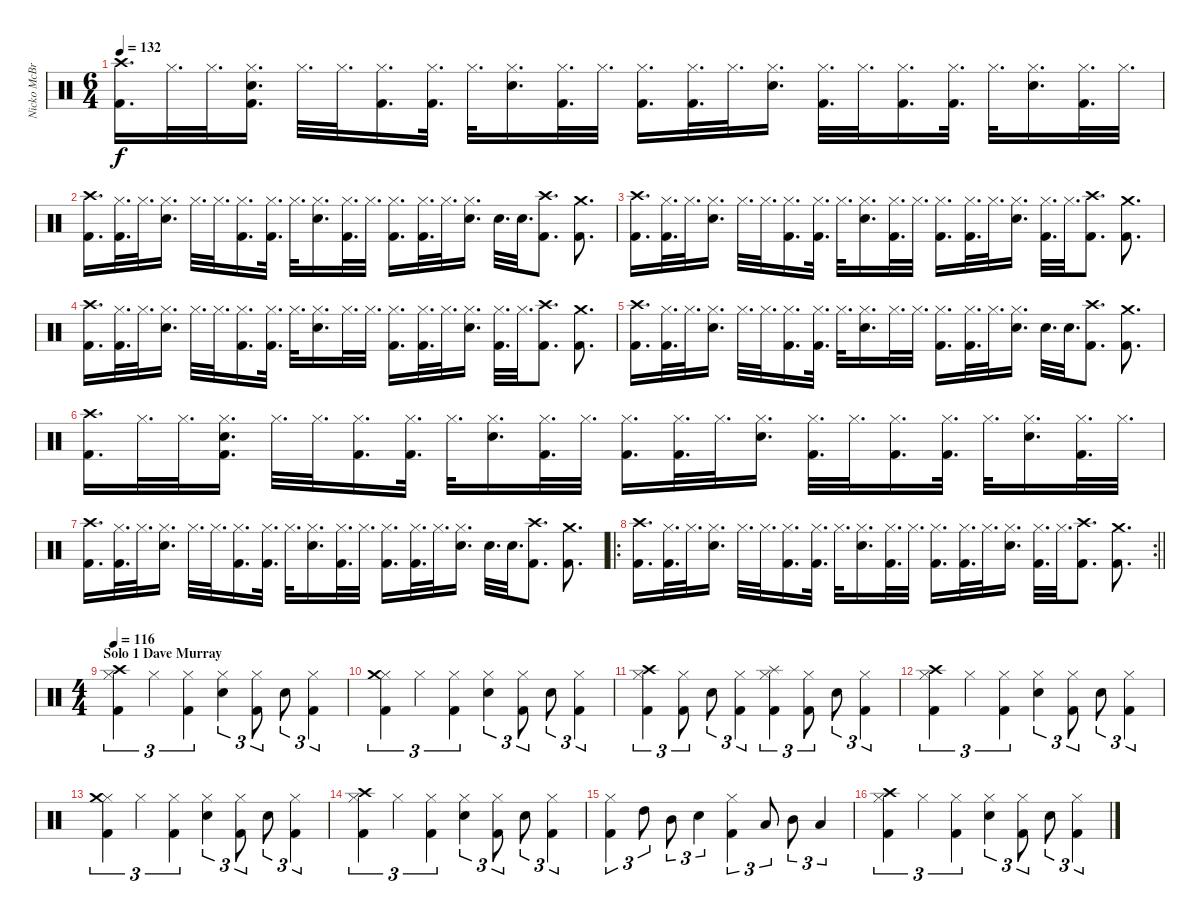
\track ("Nicko McBrain" "Nicko McBr") {instrument percussion}
\staff {score}
\articulation defaults
\ts (6 4)
\tempo 132
\clef neutral
\ks c
("Crash high (hit)" "Kick (hit) 2").16{d dy f} "Hi-Hat (closed)".32{d} "Hi-Hat (closed)".32{d} ("Hi-Hat (closed)" "Snare (hit) 2" "Kick (hit) 2").16{d} "Hi-Hat (closed)".32{d} "Hi-Hat (closed)".32{d} ("Hi-Hat (closed)" "Kick (hit) 2").16{d} ("Hi-Hat (closed)" "Kick (hit) 2").32{d} "Hi-Hat (closed)".32{d} ("Hi-Hat (closed)" "Snare (hit) 2").16{d} ("Hi-Hat (closed)" "Kick (hit) 2").32{d} "Hi-Hat (closed)".32{d} ("Hi-Hat (closed)" "Kick (hit) 2").16{d} ("Hi-Hat (closed)" "Kick (hit) 2").32{d} "Hi-Hat (closed)".32{d} ("Hi-Hat (closed)" "Snare (hit) 2").16{d} ("Hi-Hat (closed)" "Kick (hit) 2").32{d} "Hi-Hat (closed)".32{d} ("Hi-Hat (closed)" "Kick (hit) 2").16{d} ("Hi-Hat (closed)" "Kick (hit) 2").32{d} "Hi-Hat (closed)".32{d} ("Hi-Hat (closed)" "Snare (hit) 2").16{d} ("Hi-Hat (closed)" "Kick (hit) 2").32{d} "Hi-Hat (closed)".32{d} |
("Crash high (hit)" "Kick (hit) 2").16{d} ("Hi-Hat (closed)" "Kick (hit) 2").32{d} "Hi-Hat (closed)".32{d} ("Hi-Hat (closed)" "Snare (hit) 2").16{d} "Hi-Hat (closed)".32{d} "Hi-Hat (closed)".32{d} ("Hi-Hat (closed)" "Kick (hit) 2").16{d} ("Hi-Hat (closed)" "Kick (hit) 2").32{d} "Hi-Hat (closed)".32{d} ("Hi-Hat (closed)" "Snare (hit) 2").16{d} ("Hi-Hat (closed)" "Kick (hit) 2").32{d} "Hi-Hat (closed)".32{d} ("Hi-Hat (closed)" "Kick (hit) 2").16{d} ("Hi-Hat (closed)" "Kick (hit) 2").32{d} "Hi-Hat (closed)".32{d} ("Hi-Hat (closed)" "Snare (hit) 2").16{d} "Snare (hit) 2".32{d} "Snare (hit) 2".32{d} ("Crash high (hit)" "Kick (hit) 2").8{d} ("Crash medium (hit)" "Kick (hit) 2").8{d} |
("Crash high (hit)" "Kick (hit) 2").16{d} ("Hi-Hat (closed)" "Kick (hit) 2").32{d} "Hi-Hat (closed)".32{d} ("Hi-Hat (closed)" "Snare (hit) 2").16{d} "Hi-Hat (closed)".32{d} "Hi-Hat (closed)".32{d} ("Hi-Hat (closed)" "Kick (hit) 2").16{d} ("Hi-Hat (closed)" "Kick (hit) 2").32{d} "Hi-Hat (closed)".32{d} ("Hi-Hat (closed)" "Snare (hit) 2").16{d} ("Hi-Hat (closed)" "Kick (hit) 2").32{d} "Hi-Hat (closed)".32{d} ("Hi-Hat (closed)" "Kick (hit) 2").16{d} ("Hi-Hat (closed)" "Kick (hit) 2").32{d} "Hi-Hat (closed)".32{d} ("Hi-Hat (closed)" "Snare (hit) 2").16{d} ("Hi-Hat (closed)" "Kick (hit) 2").32{d} "Hi-Hat (closed)".32{d} ("Crash high (hit)" "Kick (hit) 2").8{d} ("Crash medium (hit)" "Kick (hit) 2").8{d} |
("Crash high (hit)" "Kick (hit) 2").16{d} ("Hi-Hat (closed)" "Kick (hit) 2").32{d} "Hi-Hat (closed)".32{d} ("Hi-Hat (closed)" "Snare (hit) 2").16{d} "Hi-Hat (closed)".32{d} "Hi-Hat (closed)".32{d} ("Hi-Hat (closed)" "Kick (hit) 2").16{d} ("Hi-Hat (closed)" "Kick (hit) 2").32{d} "Hi-Hat (closed)".32{d} ("Hi-Hat (closed)" "Snare (hit) 2").16{d} "Hi-Hat (closed)".32{d} "Hi-Hat (closed)".32{d} ("Hi-Hat (closed)" "Kick (hit) 2").16{d} ("Hi-Hat (closed)" "Kick (hit) 2").32{d} "Hi-Hat (closed)".32{d} ("Hi-Hat (closed)" "Snare (hit) 2").16{d} ("Hi-Hat (closed)" "Kick (hit) 2").32{d} "Hi-Hat (closed)".32{d} ("Crash high (hit)" "Kick (hit) 2").8{d} ("Crash medium (hit)" "Kick (hit) 2").8{d} |
("Crash high (hit)" "Kick (hit) 2").16{d} ("Hi-Hat (closed)" "Kick (hit) 2").32{d} "Hi-Hat (closed)".32{d} ("Hi-Hat (closed)" "Snare (hit) 2").16{d} "Hi-Hat (closed)".32{d} "Hi-Hat (closed)".32{d} ("Hi-Hat (closed)" "Kick (hit) 2").16{d} ("Hi-Hat (closed)" "Kick (hit) 2").32{d} "Hi-Hat (closed)".32{d} ("Hi-Hat (closed)" "Snare (hit) 2").16{d} "Hi-Hat (closed)".32{d} "Hi-Hat (closed)".32{d} ("Hi-Hat (closed)" "Kick (hit) 2").16{d} ("Hi-Hat (closed)" "Kick (hit) 2").32{d} "Hi-Hat (closed)".32{d} ("Hi-Hat (closed)" "Snare (hit) 2").16{d} "Snare (hit) 2".32{d} "Snare (hit) 2".32{d} ("Crash high (hit)" "Kick (hit) 2").8{d} ("Crash medium (hit)" "Kick (hit) 2").8{d} |
("Crash high (hit)" "Kick (hit) 2").16{d} "Hi-Hat (closed)".32{d} "Hi-Hat (closed)".32{d} ("Hi-Hat (closed)" "Snare (hit) 2" "Kick (hit) 2").16{d} "Hi-Hat (closed)".32{d} "Hi-Hat (closed)".32{d} ("Hi-Hat (closed)" "Kick (hit) 2").16{d} ("Hi-Hat (closed)" "Kick (hit) 2").32{d} "Hi-Hat (closed)".32{d} ("Hi-Hat (closed)" "Snare (hit) 2").16{d} ("Hi-Hat (closed)" "Kick (hit) 2").32{d} "Hi-Hat (closed)".32{d} ("Hi-Hat (closed)" "Kick (hit) 2").16{d} ("Hi-Hat (closed)" "Kick (hit) 2").32{d} "Hi-Hat (closed)".32{d} ("Hi-Hat (closed)" "Snare (hit) 2").16{d} ("Hi-Hat (closed)" "Kick (hit) 2").32{d} "Hi-Hat (closed)".32{d} ("Hi-Hat (closed)" "Kick (hit) 2").16{d} ("Hi-Hat (closed)" "Kick (hit) 2").32{d} "Hi-Hat (closed)".32{d} ("Hi-Hat (closed)" "Snare (hit) 2").16{d} ("Hi-Hat (closed)" "Kick (hit) 2").32{d} "Hi-Hat (closed)".32{d} |
("Crash high (hit)" "Kick (hit) 2").16{d} ("Hi-Hat (closed)" "Kick (hit) 2").32{d} "Hi-Hat (closed)".32{d} ("Hi-Hat (closed)" "Snare (hit) 2").16{d} "Hi-Hat (closed)".32{d} "Hi-Hat (closed)".32{d} ("Hi-Hat (closed)" "Kick (hit) 2").16{d} ("Hi-Hat (closed)" "Kick (hit) 2").32{d} "Hi-Hat (closed)".32{d} ("Hi-Hat (closed)" "Snare (hit) 2").16{d} ("Hi-Hat (closed)" "Kick (hit) 2").32{d} "Hi-Hat (closed)".32{d} ("Hi-Hat (closed)" "Kick (hit) 2").16{d} ("Hi-Hat (closed)" "Kick (hit) 2").32{d} "Hi-Hat (closed)".32{d} ("Hi-Hat (closed)" "Snare (hit) 2").16{d} "Snare (hit) 2".32{d} "Snare (hit) 2".32{d} ("Crash high (hit)" "Kick (hit) 2").8{d} ("Crash medium (hit)" "Kick (hit) 2").8{d} |
\ro
\rc 2
\barLineRight lightlight
("Crash high (hit)" "Kick (hit) 2").16{d} ("Hi-Hat (closed)" "Kick (hit) 2").32{d} "Hi-Hat (closed)".32{d} ("Hi-Hat (closed)" "Snare (hit) 2").16{d} "Hi-Hat (closed)".32{d} "Hi-Hat (closed)".32{d} ("Hi-Hat (closed)" "Kick (hit) 2").16{d} ("Hi-Hat (closed)" "Kick (hit) 2").32{d} "Hi-Hat (closed)".32{d} ("Hi-Hat (closed)" "Snare (hit) 2").16{d} ("Hi-Hat (closed)" "Kick (hit) 2").32{d} "Hi-Hat (closed)".32{d} ("Hi-Hat (closed)" "Kick (hit) 2").16{d} ("Hi-Hat (closed)" "Kick (hit) 2").32{d} "Hi-Hat (closed)".32{d} ("Hi-Hat (closed)" "Snare (hit) 2").16{d} ("Hi-Hat (closed)" "Kick (hit) 2").32{d} "Hi-Hat (closed)".32{d} ("Crash high (hit)" "Kick (hit) 2").8{d} ("Crash medium (hit)" "Kick (hit) 2").8{d} |
\ts (4 4)
\section ("" "Solo 1 Dave Murray")
\tempo 116
("Hi-Hat (closed)" "Crash high (hit)" "Kick (hit) 2").4{tu (3 2)} "Hi-Hat (closed)".4{tu (3 2)} ("Hi-Hat (closed)" "Kick (hit) 2").4{tu (3 2)} ("Hi-Hat (closed)" "Snare (hit) 2").4{tu (3 2)} ("Hi-Hat (closed)" "Kick (hit) 2").8{tu (3 2)} "Snare (hit) 2".8{tu (3 2)} ("Hi-Hat (closed)" "Kick (hit) 2").4{tu (3 2)} |
("Hi-Hat (closed)" "Crash medium (hit)" "Kick (hit) 2").4{tu (3 2)} "Hi-Hat (closed)".4{tu (3 2)} ("Hi-Hat (closed)" "Kick (hit) 2").4{tu (3 2)} ("Hi-Hat (closed)" "Snare (hit) 2").4{tu (3 2)} ("Hi-Hat (closed)" "Kick (hit) 2").8{tu (3 2)} "Snare (hit) 2".8{tu (3 2)} ("Hi-Hat (closed)" "Kick (hit) 2").4{tu (3 2)} |
("Hi-Hat (closed)" "Crash high (hit)" "Kick (hit) 2").4{tu (3 2)} ("Hi-Hat (closed)" "Kick (hit) 2").8{tu (3 2)} "Snare (hit) 2".8{tu (3 2)} ("Hi-Hat (closed)" "Kick (hit) 2").4{tu (3 2)} ("Hi-Hat (closed)" "Splash (hit)" "Kick (hit) 2").4{tu (3 2)} ("Hi-Hat (closed)" "Kick (hit) 2").8{tu (3 2)} "Snare (hit) 2".8{tu (3 2)} ("Hi-Hat (closed)" "Kick (hit) 2").4{tu (3 2)} |
("Hi-Hat (closed)" "Crash high (hit)" "Kick (hit) 2").4{tu (3 2)} "Hi-Hat (closed)".4{tu (3 2)} ("Hi-Hat (closed)" "Kick (hit) 2").4{tu (3 2)} ("Hi-Hat (closed)" "Snare (hit) 2").4{tu (3 2)} ("Hi-Hat (closed)" "Kick (hit) 2").8{tu (3 2)} "Snare (hit) 2".8{tu (3 2)} ("Hi-Hat (closed)" "Kick (hit) 2").4{tu (3 2)} |
("Hi-Hat (closed)" "Crash medium (hit)" "Kick (hit) 2").4{tu (3 2)} "Hi-Hat (closed)".4{tu (3 2)} ("Hi-Hat (closed)" "Kick (hit) 2").4{tu (3 2)} ("Hi-Hat (closed)" "Snare (hit) 2").4{tu (3 2)} ("Hi-Hat (closed)" "Kick (hit) 2").8{tu (3 2)} "Snare (hit) 2".8{tu (3 2)} ("Hi-Hat (closed)" "Kick (hit) 2").4{tu (3 2)} |
("Hi-Hat (closed)" "Crash high (hit)" "Kick (hit) 2").4{tu (3 2)} "Hi-Hat (closed)".4{tu (3 2)} ("Hi-Hat (closed)" "Kick (hit) 2").4{tu (3 2)} ("Hi-Hat (closed)" "Snare (hit) 2").4{tu (3 2)} ("Hi-Hat (closed)" "Kick (hit) 2").8{tu (3 2)} "Snare (hit) 2".8{tu (3 2)} ("Hi-Hat (closed)" "Kick (hit) 2").4{tu (3 2)} |
("Hi-Hat (closed)" "Kick (hit) 2").4{tu (3 2)} "High Tom (hit)".8{tu (3 2)} "Mid Tom (hit)".8{tu (3 2)} "Snare (hit) 2".4{tu (3 2)} ("Hi-Hat (closed)" "Kick (hit) 2").4{tu (3 2)} "Low Tom (hit)".8{tu (3 2)} "Mid Tom (hit)".8{tu (3 2)} "Low Tom (hit)".4{tu (3 2)} |
("Hi-Hat (closed)" "Crash high (hit)" "Kick (hit) 2").4{tu (3 2)} "Hi-Hat (closed)".4{tu (3 2)} ("Hi-Hat (closed)" "Kick (hit) 2").4{tu (3 2)} ("Hi-Hat (closed)" "Snare (hit) 2").4{tu (3 2)} ("Hi-Hat (closed)" "Kick (hit) 2").8{tu (3 2)} "Snare (hit) 2".8{tu (3 2)} ("Hi-Hat (closed)" "Kick (hit) 2").4{tu (3 2)}
